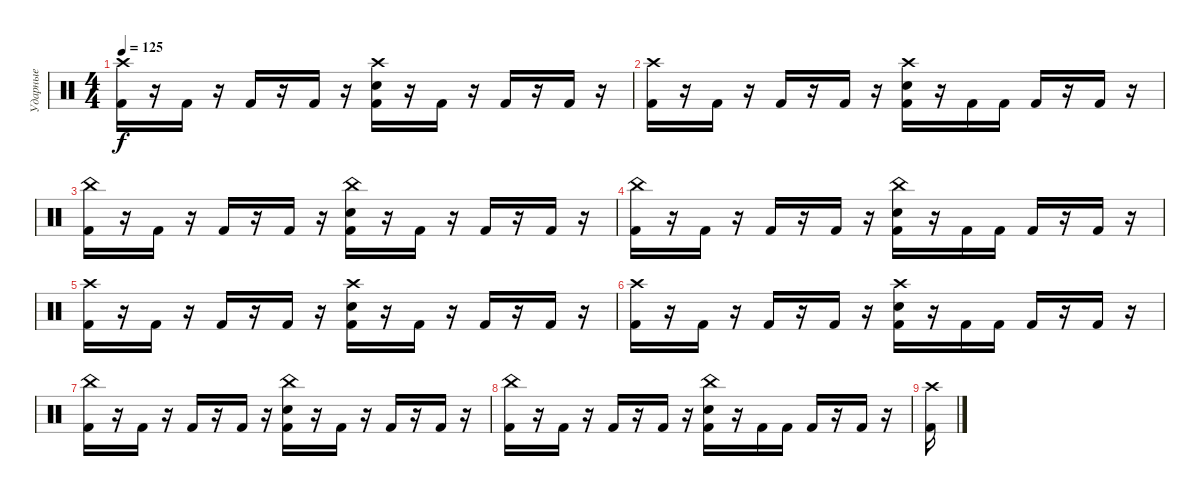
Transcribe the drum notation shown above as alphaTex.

\track ("Ударные" "Ударные") {instrument percussion}
\staff {score}
\articulation defaults
\ts (4 4)
\tempo 125
\clef neutral
\ks c
("Crash high (hit)" "Kick (hit) 2").16{dy f} r.16 "Kick (hit) 2".16 r.16 "Kick (hit) 2".16 r.16 "Kick (hit) 2".16 r.16 ("Crash high (hit)" "Electric Snare (hit)" "Kick (hit) 2").16 r.16 "Kick (hit) 2".16 r.16 "Kick (hit) 2".16 r.16 "Kick (hit) 2".16 r.16 |
("Crash high (hit)" "Kick (hit) 2").16 r.16 "Kick (hit) 2".16 r.16 "Kick (hit) 2".16 r.16 "Kick (hit) 2".16 r.16 ("Crash high (hit)" "Electric Snare (hit)" "Kick (hit) 2").16 r.16 "Kick (hit) 2".16 "Kick (hit) 2".16 "Kick (hit) 2".16 r.16 "Kick (hit) 2".16 r.16 |
("China (hit)" "Kick (hit) 2").16 r.16 "Kick (hit) 2".16 r.16 "Kick (hit) 2".16 r.16 "Kick (hit) 2".16 r.16 ("China (hit)" "Electric Snare (hit)" "Kick (hit) 2").16 r.16 "Kick (hit) 2".16 r.16 "Kick (hit) 2".16 r.16 "Kick (hit) 2".16 r.16 |
("China (hit)" "Kick (hit) 2").16 r.16 "Kick (hit) 2".16 r.16 "Kick (hit) 2".16 r.16 "Kick (hit) 2".16 r.16 ("China (hit)" "Electric Snare (hit)" "Kick (hit) 2").16 r.16 "Kick (hit) 2".16 "Kick (hit) 2".16 "Kick (hit) 2".16 r.16 "Kick (hit) 2".16 r.16 |
("Crash high (hit)" "Kick (hit) 2").16 r.16 "Kick (hit) 2".16 r.16 "Kick (hit) 2".16 r.16 "Kick (hit) 2".16 r.16 ("Crash high (hit)" "Electric Snare (hit)" "Kick (hit) 2").16 r.16 "Kick (hit) 2".16 r.16 "Kick (hit) 2".16 r.16 "Kick (hit) 2".16 r.16 |
("Crash high (hit)" "Kick (hit) 2").16 r.16 "Kick (hit) 2".16 r.16 "Kick (hit) 2".16 r.16 "Kick (hit) 2".16 r.16 ("Crash high (hit)" "Electric Snare (hit)" "Kick (hit) 2").16 r.16 "Kick (hit) 2".16 "Kick (hit) 2".16 "Kick (hit) 2".16 r.16 "Kick (hit) 2".16 r.16 |
("China (hit)" "Kick (hit) 2").16 r.16 "Kick (hit) 2".16 r.16 "Kick (hit) 2".16 r.16 "Kick (hit) 2".16 r.16 ("China (hit)" "Electric Snare (hit)" "Kick (hit) 2").16 r.16 "Kick (hit) 2".16 r.16 "Kick (hit) 2".16 r.16 "Kick (hit) 2".16 r.16 |
("China (hit)" "Kick (hit) 2").16 r.16 "Kick (hit) 2".16 r.16 "Kick (hit) 2".16 r.16 "Kick (hit) 2".16 r.16 ("China (hit)" "Electric Snare (hit)" "Kick (hit) 2").16 r.16 "Kick (hit) 2".16 "Kick (hit) 2".16 "Kick (hit) 2".16 r.16 "Kick (hit) 2".16 r.16 |
("Crash high (hit)" "Kick (hit) 2").16
